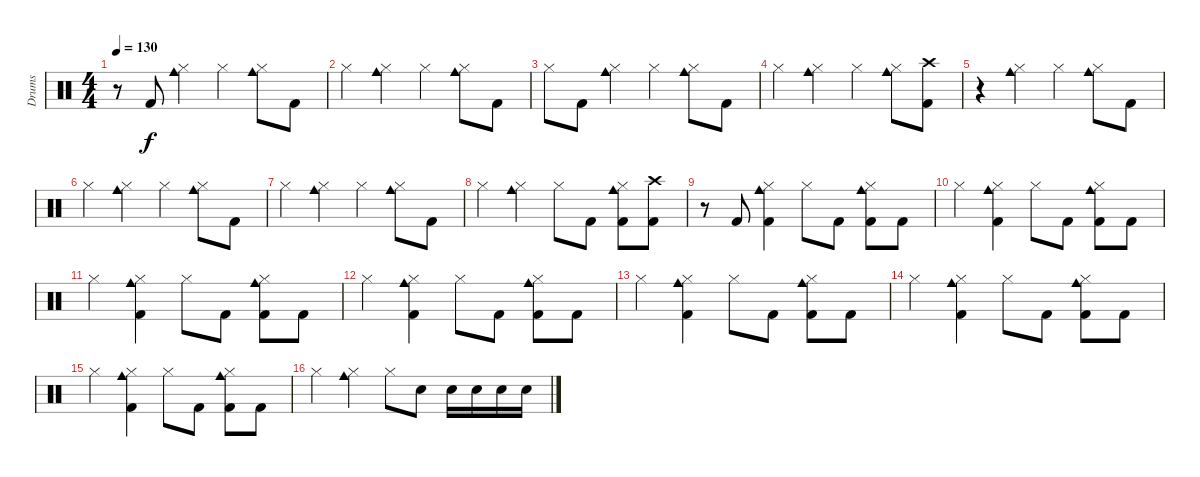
\track ("Drums" "Drums") {instrument percussion}
\staff {score}
\articulation defaults
\ts (4 4)
\tempo 130
\clef neutral
\ks c
r.8{dy f} "Kick (hit) 2".8 ("Hi-Hat (closed)" "Cowbell medium (hit)").4 "Hi-Hat (closed)".4 ("Hi-Hat (closed)" "Cowbell medium (hit)").8 "Kick (hit) 2".8 |
"Hi-Hat (closed)".4 ("Hi-Hat (closed)" "Cowbell medium (hit)").4 "Hi-Hat (closed)".4 ("Hi-Hat (closed)" "Cowbell medium (hit)").8 "Kick (hit) 2".8 |
"Hi-Hat (closed)".8 "Kick (hit) 2".8 ("Hi-Hat (closed)" "Cowbell medium (hit)").4 "Hi-Hat (closed)".4 ("Hi-Hat (closed)" "Cowbell medium (hit)").8 "Kick (hit) 2".8 |
"Hi-Hat (closed)".4 ("Hi-Hat (closed)" "Cowbell medium (hit)").4 "Hi-Hat (closed)".4 ("Hi-Hat (closed)" "Cowbell medium (hit)").8 ("Crash high (hit)" "Kick (hit) 2").8 |
r.4 ("Hi-Hat (closed)" "Cowbell medium (hit)").4 "Hi-Hat (closed)".4 ("Hi-Hat (closed)" "Cowbell medium (hit)").8 "Kick (hit) 2".8 |
"Hi-Hat (closed)".4 ("Hi-Hat (closed)" "Cowbell medium (hit)").4 "Hi-Hat (closed)".4 ("Hi-Hat (closed)" "Cowbell medium (hit)").8 "Kick (hit) 2".8 |
"Hi-Hat (closed)".4 ("Hi-Hat (closed)" "Cowbell medium (hit)").4 "Hi-Hat (closed)".4 ("Hi-Hat (closed)" "Cowbell medium (hit)").8 "Kick (hit) 2".8 |
"Hi-Hat (closed)".4 ("Hi-Hat (closed)" "Cowbell medium (hit)").4 "Hi-Hat (closed)".8 "Kick (hit) 2".8 ("Hi-Hat (closed)" "Cowbell medium (hit)" "Kick (hit) 2").8 ("Crash high (hit)" "Kick (hit) 2").8 |
r.8 "Kick (hit) 2".8 ("Hi-Hat (closed)" "Cowbell medium (hit)" "Kick (hit) 2").4 "Hi-Hat (closed)".8 "Kick (hit) 2".8 ("Hi-Hat (closed)" "Cowbell medium (hit)" "Kick (hit) 2").8 "Kick (hit) 2".8 |
"Hi-Hat (closed)".4 ("Hi-Hat (closed)" "Cowbell medium (hit)" "Kick (hit) 2").4 "Hi-Hat (closed)".8 "Kick (hit) 2".8 ("Hi-Hat (closed)" "Cowbell medium (hit)" "Kick (hit) 2").8 "Kick (hit) 2".8 |
"Hi-Hat (closed)".4 ("Hi-Hat (closed)" "Cowbell medium (hit)" "Kick (hit) 2").4 "Hi-Hat (closed)".8 "Kick (hit) 2".8 ("Hi-Hat (closed)" "Cowbell medium (hit)" "Kick (hit) 2").8 "Kick (hit) 2".8 |
"Hi-Hat (closed)".4 ("Hi-Hat (closed)" "Cowbell medium (hit)" "Kick (hit) 2").4 "Hi-Hat (closed)".8 "Kick (hit) 2".8 ("Hi-Hat (closed)" "Cowbell medium (hit)" "Kick (hit) 2").8 "Kick (hit) 2".8 |
"Hi-Hat (closed)".4 ("Hi-Hat (closed)" "Cowbell medium (hit)" "Kick (hit) 2").4 "Hi-Hat (closed)".8 "Kick (hit) 2".8 ("Hi-Hat (closed)" "Cowbell medium (hit)" "Kick (hit) 2").8 "Kick (hit) 2".8 |
"Hi-Hat (closed)".4 ("Hi-Hat (closed)" "Cowbell medium (hit)" "Kick (hit) 2").4 "Hi-Hat (closed)".8 "Kick (hit) 2".8 ("Hi-Hat (closed)" "Cowbell medium (hit)" "Kick (hit) 2").8 "Kick (hit) 2".8 |
"Hi-Hat (closed)".4 ("Hi-Hat (closed)" "Cowbell medium (hit)" "Kick (hit) 2").4 "Hi-Hat (closed)".8 "Kick (hit) 2".8 ("Hi-Hat (closed)" "Cowbell medium (hit)" "Kick (hit) 2").8 "Kick (hit) 2".8 |
"Hi-Hat (closed)".4 ("Hi-Hat (closed)" "Cowbell medium (hit)").4 "Hi-Hat (closed)".8 "Electric Snare (hit)".8 "Electric Snare (hit)".16 "Electric Snare (hit)".16 "Electric Snare (hit)".16 "Electric Snare (hit)".16
